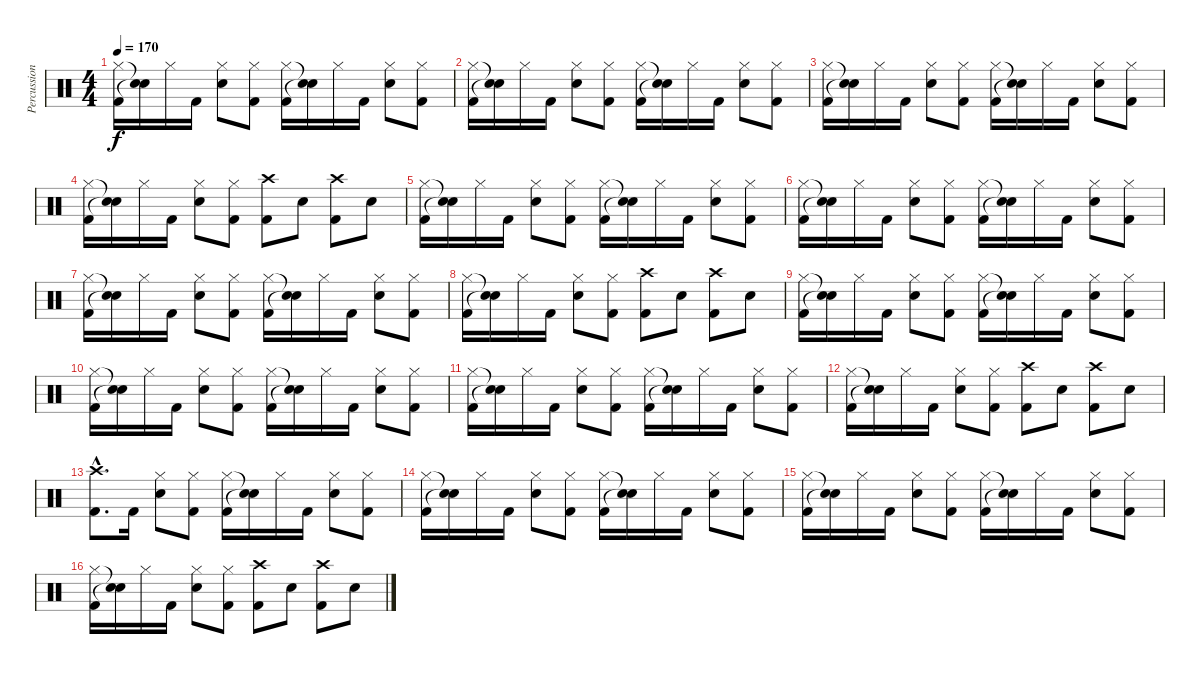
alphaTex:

\track ("Percussion" "Percussion") {instrument percussion}
\staff {score}
\articulation defaults
\ts (4 4)
\tempo 170
\clef neutral
\ks c
("Hi-Hat (closed)" "Kick (hit) 2").16{dy f} ("Snare (hit)"{t} "Snare (hit)"{t}).16 "Hi-Hat (closed)".16 "Kick (hit) 2".16 ("Hi-Hat (closed)" "Snare (hit) 2").8 ("Hi-Hat (closed)" "Kick (hit) 2").8 ("Hi-Hat (closed)" "Kick (hit) 2").16 ("Snare (hit)"{t} "Snare (hit)"{t}).16 "Hi-Hat (closed)".16 "Kick (hit) 2".16 ("Hi-Hat (closed)" "Snare (hit) 2").8 ("Hi-Hat (closed)" "Kick (hit) 2").8 |
("Hi-Hat (closed)" "Kick (hit) 2").16 ("Snare (hit)"{t} "Snare (hit)"{t}).16 "Hi-Hat (closed)".16 "Kick (hit) 2".16 ("Hi-Hat (closed)" "Snare (hit) 2").8 ("Hi-Hat (closed)" "Kick (hit) 2").8 ("Hi-Hat (closed)" "Kick (hit) 2").16 ("Snare (hit)"{t} "Snare (hit)"{t}).16 "Hi-Hat (closed)".16 "Kick (hit) 2".16 ("Hi-Hat (closed)" "Snare (hit) 2").8 ("Hi-Hat (closed)" "Kick (hit) 2").8 |
("Hi-Hat (closed)" "Kick (hit) 2").16 ("Snare (hit)"{t} "Snare (hit)"{t}).16 "Hi-Hat (closed)".16 "Kick (hit) 2".16 ("Hi-Hat (closed)" "Snare (hit) 2").8 ("Hi-Hat (closed)" "Kick (hit) 2").8 ("Hi-Hat (closed)" "Kick (hit) 2").16 ("Snare (hit)"{t} "Snare (hit)"{t}).16 "Hi-Hat (closed)".16 "Kick (hit) 2".16 ("Hi-Hat (closed)" "Snare (hit) 2").8 ("Hi-Hat (closed)" "Kick (hit) 2").8 |
("Hi-Hat (closed)" "Kick (hit) 2").16 ("Snare (hit)"{t} "Snare (hit)"{t}).16 "Hi-Hat (closed)".16 "Kick (hit) 2".16 ("Hi-Hat (closed)" "Snare (hit) 2").8 ("Hi-Hat (closed)" "Kick (hit) 2").8 ("Crash high (hit)" "Kick (hit) 2").8 "Snare (hit) 2".8 ("Crash high (hit)" "Kick (hit) 2").8 "Snare (hit) 2".8 |
("Hi-Hat (closed)" "Kick (hit) 2").16 ("Snare (hit)"{t} "Snare (hit)"{t}).16 "Hi-Hat (closed)".16 "Kick (hit) 2".16 ("Hi-Hat (closed)" "Snare (hit) 2").8 ("Hi-Hat (closed)" "Kick (hit) 2").8 ("Hi-Hat (closed)" "Kick (hit) 2").16 ("Snare (hit)"{t} "Snare (hit)"{t}).16 "Hi-Hat (closed)".16 "Kick (hit) 2".16 ("Hi-Hat (closed)" "Snare (hit) 2").8 ("Hi-Hat (closed)" "Kick (hit) 2").8 |
("Hi-Hat (closed)" "Kick (hit) 2").16 ("Snare (hit)"{t} "Snare (hit)"{t}).16 "Hi-Hat (closed)".16 "Kick (hit) 2".16 ("Hi-Hat (closed)" "Snare (hit) 2").8 ("Hi-Hat (closed)" "Kick (hit) 2").8 ("Hi-Hat (closed)" "Kick (hit) 2").16 ("Snare (hit)"{t} "Snare (hit)"{t}).16 "Hi-Hat (closed)".16 "Kick (hit) 2".16 ("Hi-Hat (closed)" "Snare (hit) 2").8 ("Hi-Hat (closed)" "Kick (hit) 2").8 |
("Hi-Hat (closed)" "Kick (hit) 2").16 ("Snare (hit)"{t} "Snare (hit)"{t}).16 "Hi-Hat (closed)".16 "Kick (hit) 2".16 ("Hi-Hat (closed)" "Snare (hit) 2").8 ("Hi-Hat (closed)" "Kick (hit) 2").8 ("Hi-Hat (closed)" "Kick (hit) 2").16 ("Snare (hit)"{t} "Snare (hit)"{t}).16 "Hi-Hat (closed)".16 "Kick (hit) 2".16 ("Hi-Hat (closed)" "Snare (hit) 2").8 ("Hi-Hat (closed)" "Kick (hit) 2").8 |
("Hi-Hat (closed)" "Kick (hit) 2").16 ("Snare (hit)"{t} "Snare (hit)"{t}).16 "Hi-Hat (closed)".16 "Kick (hit) 2".16 ("Hi-Hat (closed)" "Snare (hit) 2").8 ("Hi-Hat (closed)" "Kick (hit) 2").8 ("Crash high (hit)" "Kick (hit) 2").8 "Snare (hit) 2".8 ("Crash high (hit)" "Kick (hit) 2").8 "Snare (hit) 2".8 |
("Hi-Hat (closed)" "Kick (hit) 2").16 ("Snare (hit)"{t} "Snare (hit)"{t}).16 "Hi-Hat (closed)".16 "Kick (hit) 2".16 ("Hi-Hat (closed)" "Snare (hit) 2").8 ("Hi-Hat (closed)" "Kick (hit) 2").8 ("Hi-Hat (closed)" "Kick (hit) 2").16 ("Snare (hit)"{t} "Snare (hit)"{t}).16 "Hi-Hat (closed)".16 "Kick (hit) 2".16 ("Hi-Hat (closed)" "Snare (hit) 2").8 ("Hi-Hat (closed)" "Kick (hit) 2").8 |
("Hi-Hat (closed)" "Kick (hit) 2").16 ("Snare (hit)"{t} "Snare (hit)"{t}).16 "Hi-Hat (closed)".16 "Kick (hit) 2".16 ("Hi-Hat (closed)" "Snare (hit) 2").8 ("Hi-Hat (closed)" "Kick (hit) 2").8 ("Hi-Hat (closed)" "Kick (hit) 2").16 ("Snare (hit)"{t} "Snare (hit)"{t}).16 "Hi-Hat (closed)".16 "Kick (hit) 2".16 ("Hi-Hat (closed)" "Snare (hit) 2").8 ("Hi-Hat (closed)" "Kick (hit) 2").8 |
("Hi-Hat (closed)" "Kick (hit) 2").16 ("Snare (hit)"{t} "Snare (hit)"{t}).16 "Hi-Hat (closed)".16 "Kick (hit) 2".16 ("Hi-Hat (closed)" "Snare (hit) 2").8 ("Hi-Hat (closed)" "Kick (hit) 2").8 ("Hi-Hat (closed)" "Kick (hit) 2").16 ("Snare (hit)"{t} "Snare (hit)"{t}).16 "Hi-Hat (closed)".16 "Kick (hit) 2".16 ("Hi-Hat (closed)" "Snare (hit) 2").8 ("Hi-Hat (closed)" "Kick (hit) 2").8 |
("Hi-Hat (closed)" "Kick (hit) 2").16 ("Snare (hit)"{t} "Snare (hit)"{t}).16 "Hi-Hat (closed)".16 "Kick (hit) 2".16 ("Hi-Hat (closed)" "Snare (hit) 2").8 ("Hi-Hat (closed)" "Kick (hit) 2").8 ("Crash high (hit)" "Kick (hit) 2").8 "Snare (hit) 2".8 ("Crash high (hit)" "Kick (hit) 2").8 "Snare (hit) 2".8 |
("Crash high (hit)"{hac} "Kick (hit) 2"{hac}).8{d} "Kick (hit) 2".16 ("Hi-Hat (closed)" "Snare (hit) 2").8 ("Hi-Hat (closed)" "Kick (hit) 2").8 ("Hi-Hat (closed)" "Kick (hit) 2").16 ("Snare (hit)"{t} "Snare (hit)"{t}).16 "Hi-Hat (closed)".16 "Kick (hit) 2".16 ("Hi-Hat (closed)" "Snare (hit) 2").8 ("Hi-Hat (closed)" "Kick (hit) 2").8 |
("Hi-Hat (closed)" "Kick (hit) 2").16 ("Snare (hit)"{t} "Snare (hit)"{t}).16 "Hi-Hat (closed)".16 "Kick (hit) 2".16 ("Hi-Hat (closed)" "Snare (hit) 2").8 ("Hi-Hat (closed)" "Kick (hit) 2").8 ("Hi-Hat (closed)" "Kick (hit) 2").16 ("Snare (hit)"{t} "Snare (hit)"{t}).16 "Hi-Hat (closed)".16 "Kick (hit) 2".16 ("Hi-Hat (closed)" "Snare (hit) 2").8 ("Hi-Hat (closed)" "Kick (hit) 2").8 |
("Hi-Hat (closed)" "Kick (hit) 2").16 ("Snare (hit)"{t} "Snare (hit)"{t}).16 "Hi-Hat (closed)".16 "Kick (hit) 2".16 ("Hi-Hat (closed)" "Snare (hit) 2").8 ("Hi-Hat (closed)" "Kick (hit) 2").8 ("Hi-Hat (closed)" "Kick (hit) 2").16 ("Snare (hit)"{t} "Snare (hit)"{t}).16 "Hi-Hat (closed)".16 "Kick (hit) 2".16 ("Hi-Hat (closed)" "Snare (hit) 2").8 ("Hi-Hat (closed)" "Kick (hit) 2").8 |
("Hi-Hat (closed)" "Kick (hit) 2").16 ("Snare (hit)"{t} "Snare (hit)"{t}).16 "Hi-Hat (closed)".16 "Kick (hit) 2".16 ("Hi-Hat (closed)" "Snare (hit) 2").8 ("Hi-Hat (closed)" "Kick (hit) 2").8 ("Crash high (hit)" "Kick (hit) 2").8 "Snare (hit) 2".8 ("Crash high (hit)" "Kick (hit) 2").8 "Snare (hit) 2".8
